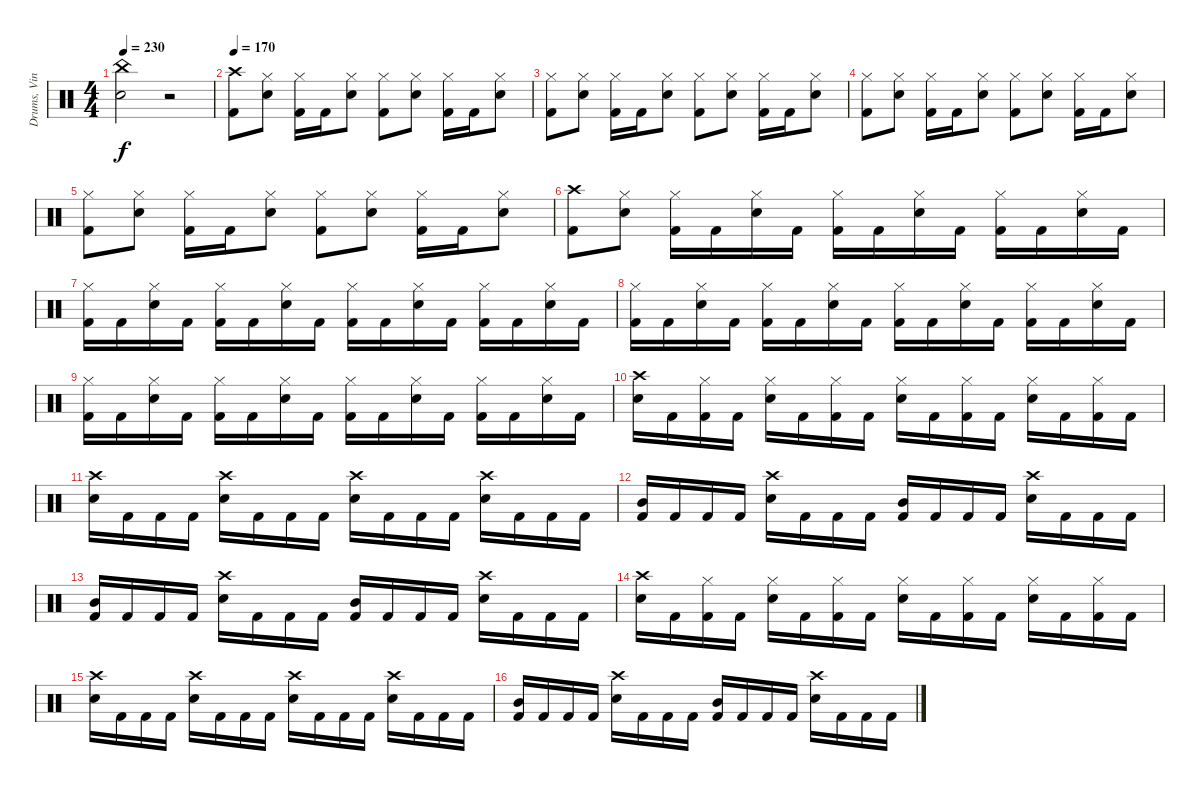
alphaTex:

\track ("Drums, Vinnie" "Drums, Vin") {instrument percussion}
\staff {score}
\articulation defaults
\ts (4 4)
\tempo 230
\clef neutral
\ks c
("China (hit)" "Electric Snare (hit)").2{dy f} r.2 |
\tempo 170
("Crash high (hit)" "Kick (hit) 2").8 ("Hi-Hat (closed)" "Electric Snare (hit)").8 ("Hi-Hat (closed)" "Kick (hit) 2").16 "Kick (hit) 2".16 ("Hi-Hat (closed)" "Electric Snare (hit)").8 ("Hi-Hat (closed)" "Kick (hit) 2").8 ("Hi-Hat (closed)" "Electric Snare (hit)").8 ("Hi-Hat (closed)" "Kick (hit) 2").16 "Kick (hit) 2".16 ("Hi-Hat (closed)" "Electric Snare (hit)").8 |
("Hi-Hat (closed)" "Kick (hit) 2").8 ("Hi-Hat (closed)" "Electric Snare (hit)").8 ("Hi-Hat (closed)" "Kick (hit) 2").16 "Kick (hit) 2".16 ("Hi-Hat (closed)" "Electric Snare (hit)").8 ("Hi-Hat (closed)" "Kick (hit) 2").8 ("Hi-Hat (closed)" "Electric Snare (hit)").8 ("Hi-Hat (closed)" "Kick (hit) 2").16 "Kick (hit) 2".16 ("Hi-Hat (closed)" "Electric Snare (hit)").8 |
("Hi-Hat (closed)" "Kick (hit) 2").8 ("Hi-Hat (closed)" "Electric Snare (hit)").8 ("Hi-Hat (closed)" "Kick (hit) 2").16 "Kick (hit) 2".16 ("Hi-Hat (closed)" "Electric Snare (hit)").8 ("Hi-Hat (closed)" "Kick (hit) 2").8 ("Hi-Hat (closed)" "Electric Snare (hit)").8 ("Hi-Hat (closed)" "Kick (hit) 2").16 "Kick (hit) 2".16 ("Hi-Hat (closed)" "Electric Snare (hit)").8 |
("Hi-Hat (closed)" "Kick (hit) 2").8 ("Hi-Hat (closed)" "Electric Snare (hit)").8 ("Hi-Hat (closed)" "Kick (hit) 2").16 "Kick (hit) 2".16 ("Hi-Hat (closed)" "Electric Snare (hit)").8 ("Hi-Hat (closed)" "Kick (hit) 2").8 ("Hi-Hat (closed)" "Electric Snare (hit)").8 ("Hi-Hat (closed)" "Kick (hit) 2").16 "Kick (hit) 2".16 ("Hi-Hat (closed)" "Electric Snare (hit)").8 |
("Crash high (hit)" "Kick (hit) 2").8 ("Hi-Hat (closed)" "Electric Snare (hit)").8 ("Hi-Hat (closed)" "Kick (hit) 2").16 "Kick (hit) 2".16 ("Hi-Hat (closed)" "Electric Snare (hit)").16 "Kick (hit) 2".16 ("Hi-Hat (closed)" "Kick (hit) 2").16 "Kick (hit) 2".16 ("Hi-Hat (closed)" "Electric Snare (hit)").16 "Kick (hit) 2".16 ("Hi-Hat (closed)" "Kick (hit) 2").16 "Kick (hit) 2".16 ("Hi-Hat (closed)" "Electric Snare (hit)").16 "Kick (hit) 2".16 |
("Hi-Hat (closed)" "Kick (hit) 2").16 "Kick (hit) 2".16 ("Hi-Hat (closed)" "Electric Snare (hit)").16 "Kick (hit) 2".16 ("Hi-Hat (closed)" "Kick (hit) 2").16 "Kick (hit) 2".16 ("Hi-Hat (closed)" "Electric Snare (hit)").16 "Kick (hit) 2".16 ("Hi-Hat (closed)" "Kick (hit) 2").16 "Kick (hit) 2".16 ("Hi-Hat (closed)" "Electric Snare (hit)").16 "Kick (hit) 2".16 ("Hi-Hat (closed)" "Kick (hit) 2").16 "Kick (hit) 2".16 ("Hi-Hat (closed)" "Electric Snare (hit)").16 "Kick (hit) 2".16 |
("Hi-Hat (closed)" "Kick (hit) 2").16 "Kick (hit) 2".16 ("Hi-Hat (closed)" "Electric Snare (hit)").16 "Kick (hit) 2".16 ("Hi-Hat (closed)" "Kick (hit) 2").16 "Kick (hit) 2".16 ("Hi-Hat (closed)" "Electric Snare (hit)").16 "Kick (hit) 2".16 ("Hi-Hat (closed)" "Kick (hit) 2").16 "Kick (hit) 2".16 ("Hi-Hat (closed)" "Electric Snare (hit)").16 "Kick (hit) 2".16 ("Hi-Hat (closed)" "Kick (hit) 2").16 "Kick (hit) 2".16 ("Hi-Hat (closed)" "Electric Snare (hit)").16 "Kick (hit) 2".16 |
("Hi-Hat (closed)" "Kick (hit) 2").16 "Kick (hit) 2".16 ("Hi-Hat (closed)" "Electric Snare (hit)").16 "Kick (hit) 2".16 ("Hi-Hat (closed)" "Kick (hit) 2").16 "Kick (hit) 2".16 ("Hi-Hat (closed)" "Electric Snare (hit)").16 "Kick (hit) 2".16 ("Hi-Hat (closed)" "Kick (hit) 2").16 "Kick (hit) 2".16 ("Hi-Hat (closed)" "Electric Snare (hit)").16 "Kick (hit) 2".16 ("Hi-Hat (closed)" "Kick (hit) 2").16 "Kick (hit) 2".16 ("Hi-Hat (closed)" "Electric Snare (hit)").16 "Kick (hit) 2".16 |
("Crash high (hit)" "Electric Snare (hit)").16 "Kick (hit) 2".16 ("Hi-Hat (closed)" "Kick (hit) 2").16 "Kick (hit) 2".16 ("Hi-Hat (closed)" "Electric Snare (hit)").16 "Kick (hit) 2".16 ("Hi-Hat (closed)" "Kick (hit) 2").16 "Kick (hit) 2".16 ("Hi-Hat (closed)" "Electric Snare (hit)").16 "Kick (hit) 2".16 ("Hi-Hat (closed)" "Kick (hit) 2").16 "Kick (hit) 2".16 ("Hi-Hat (closed)" "Electric Snare (hit)").16 "Kick (hit) 2".16 ("Hi-Hat (closed)" "Kick (hit) 2").16 "Kick (hit) 2".16 |
("Crash high (hit)" "Electric Snare (hit)").16 "Kick (hit) 2".16 "Kick (hit) 2".16 "Kick (hit) 2".16 ("Crash high (hit)" "Electric Snare (hit)").16 "Kick (hit) 2".16 "Kick (hit) 2".16 "Kick (hit) 2".16 ("Crash high (hit)" "Electric Snare (hit)").16 "Kick (hit) 2".16 "Kick (hit) 2".16 "Kick (hit) 2".16 ("Crash high (hit)" "Electric Snare (hit)").16 "Kick (hit) 2".16 "Kick (hit) 2".16 "Kick (hit) 2".16 |
("Mid Tom (hit)" "Kick (hit) 2").16 "Kick (hit) 2".16 "Kick (hit) 2".16 "Kick (hit) 2".16 ("Crash high (hit)" "Electric Snare (hit)").16 "Kick (hit) 2".16 "Kick (hit) 2".16 "Kick (hit) 2".16 ("Mid Tom (hit)" "Kick (hit) 2").16 "Kick (hit) 2".16 "Kick (hit) 2".16 "Kick (hit) 2".16 ("Crash high (hit)" "Electric Snare (hit)").16 "Kick (hit) 2".16 "Kick (hit) 2".16 "Kick (hit) 2".16 |
("Mid Tom (hit)" "Kick (hit) 2").16 "Kick (hit) 2".16 "Kick (hit) 2".16 "Kick (hit) 2".16 ("Crash high (hit)" "Electric Snare (hit)").16 "Kick (hit) 2".16 "Kick (hit) 2".16 "Kick (hit) 2".16 ("Mid Tom (hit)" "Kick (hit) 2").16 "Kick (hit) 2".16 "Kick (hit) 2".16 "Kick (hit) 2".16 ("Crash high (hit)" "Electric Snare (hit)").16 "Kick (hit) 2".16 "Kick (hit) 2".16 "Kick (hit) 2".16 |
("Crash high (hit)" "Electric Snare (hit)").16 "Kick (hit) 2".16 ("Hi-Hat (closed)" "Kick (hit) 2").16 "Kick (hit) 2".16 ("Hi-Hat (closed)" "Electric Snare (hit)").16 "Kick (hit) 2".16 ("Hi-Hat (closed)" "Kick (hit) 2").16 "Kick (hit) 2".16 ("Hi-Hat (closed)" "Electric Snare (hit)").16 "Kick (hit) 2".16 ("Hi-Hat (closed)" "Kick (hit) 2").16 "Kick (hit) 2".16 ("Hi-Hat (closed)" "Electric Snare (hit)").16 "Kick (hit) 2".16 ("Hi-Hat (closed)" "Kick (hit) 2").16 "Kick (hit) 2".16 |
("Crash high (hit)" "Electric Snare (hit)").16 "Kick (hit) 2".16 "Kick (hit) 2".16 "Kick (hit) 2".16 ("Crash high (hit)" "Electric Snare (hit)").16 "Kick (hit) 2".16 "Kick (hit) 2".16 "Kick (hit) 2".16 ("Crash high (hit)" "Electric Snare (hit)").16 "Kick (hit) 2".16 "Kick (hit) 2".16 "Kick (hit) 2".16 ("Crash high (hit)" "Electric Snare (hit)").16 "Kick (hit) 2".16 "Kick (hit) 2".16 "Kick (hit) 2".16 |
("Mid Tom (hit)" "Kick (hit) 2").16 "Kick (hit) 2".16 "Kick (hit) 2".16 "Kick (hit) 2".16 ("Crash high (hit)" "Electric Snare (hit)").16 "Kick (hit) 2".16 "Kick (hit) 2".16 "Kick (hit) 2".16 ("Mid Tom (hit)" "Kick (hit) 2").16 "Kick (hit) 2".16 "Kick (hit) 2".16 "Kick (hit) 2".16 ("Crash high (hit)" "Electric Snare (hit)").16 "Kick (hit) 2".16 "Kick (hit) 2".16 "Kick (hit) 2".16
